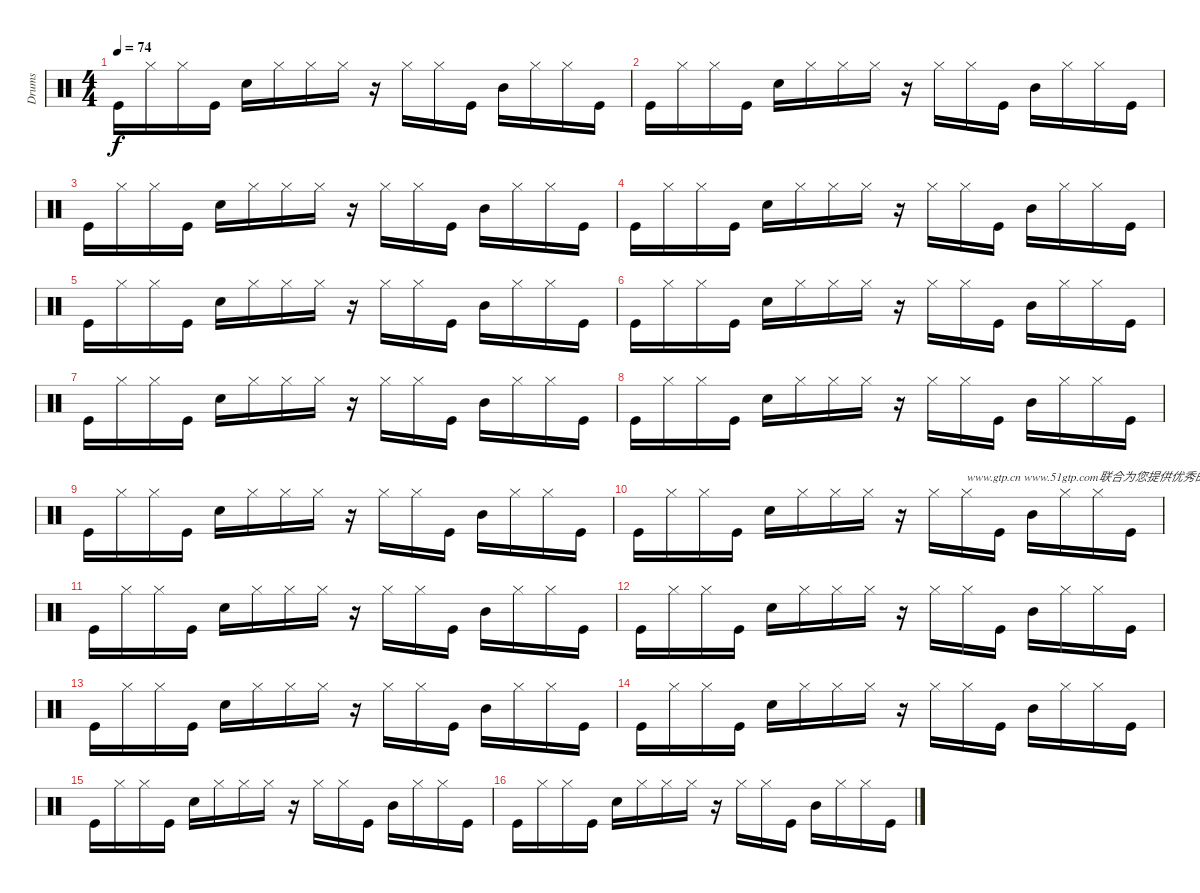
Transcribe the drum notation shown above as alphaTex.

\track ("Drums" "Drums") {instrument percussion}
\staff {score}
\articulation defaults
\ts (4 4)
\tempo 74
\clef neutral
\ks c "Kick (hit)".16{dy f} "Hi-Hat (closed)".16 "Hi-Hat (closed)".16 "Kick (hit)".16 "Snare (hit) 2".16 "Hi-Hat (closed)".16 "Hi-Hat (closed)".16 "Hi-Hat (closed)".16
r.16 "Hi-Hat (closed)".16 "Hi-Hat (closed)".16 "Kick (hit)".16 "Mid Tom (hit)".16 "Hi-Hat (closed)".16 "Hi-Hat (closed)".16 "Kick (hit)".16 |
"Kick (hit)".16 "Hi-Hat (closed)".16 "Hi-Hat (closed)".16 "Kick (hit)".16 "Snare (hit) 2".16 "Hi-Hat (closed)".16 "Hi-Hat (closed)".16 "Hi-Hat (closed)".16 r.16 "Hi-Hat (closed)".16 "Hi-Hat (closed)".16 "Kick (hit)".16 "Mid Tom (hit)".16 "Hi-Hat (closed)".16 "Hi-Hat (closed)".16 "Kick (hit)".16 |
"Kick (hit)".16 "Hi-Hat (closed)".16 "Hi-Hat (closed)".16 "Kick (hit)".16 "Snare (hit) 2".16 "Hi-Hat (closed)".16 "Hi-Hat (closed)".16 "Hi-Hat (closed)".16 r.16 "Hi-Hat (closed)".16 "Hi-Hat (closed)".16 "Kick (hit)".16 "Mid Tom (hit)".16 "Hi-Hat (closed)".16 "Hi-Hat (closed)".16 "Kick (hit)".16 |
"Kick (hit)".16 "Hi-Hat (closed)".16 "Hi-Hat (closed)".16 "Kick (hit)".16 "Snare (hit) 2".16 "Hi-Hat (closed)".16 "Hi-Hat (closed)".16 "Hi-Hat (closed)".16 r.16 "Hi-Hat (closed)".16 "Hi-Hat (closed)".16 "Kick (hit)".16 "Mid Tom (hit)".16 "Hi-Hat (closed)".16 "Hi-Hat (closed)".16 "Kick (hit)".16 |
"Kick (hit)".16 "Hi-Hat (closed)".16 "Hi-Hat (closed)".16 "Kick (hit)".16 "Snare (hit) 2".16 "Hi-Hat (closed)".16 "Hi-Hat (closed)".16 "Hi-Hat (closed)".16 r.16 "Hi-Hat (closed)".16 "Hi-Hat (closed)".16 "Kick (hit)".16 "Mid Tom (hit)".16 "Hi-Hat (closed)".16 "Hi-Hat (closed)".16 "Kick (hit)".16 |
"Kick (hit)".16 "Hi-Hat (closed)".16 "Hi-Hat (closed)".16 "Kick (hit)".16 "Snare (hit) 2".16 "Hi-Hat (closed)".16 "Hi-Hat (closed)".16 "Hi-Hat (closed)".16 r.16 "Hi-Hat (closed)".16 "Hi-Hat (closed)".16 "Kick (hit)".16 "Mid Tom (hit)".16 "Hi-Hat (closed)".16 "Hi-Hat (closed)".16 "Kick (hit)".16 |
"Kick (hit)".16 "Hi-Hat (closed)".16 "Hi-Hat (closed)".16 "Kick (hit)".16 "Snare (hit) 2".16 "Hi-Hat (closed)".16 "Hi-Hat (closed)".16 "Hi-Hat (closed)".16 r.16 "Hi-Hat (closed)".16 "Hi-Hat (closed)".16 "Kick (hit)".16 "Mid Tom (hit)".16 "Hi-Hat (closed)".16 "Hi-Hat (closed)".16 "Kick (hit)".16 |
"Kick (hit)".16 "Hi-Hat (closed)".16 "Hi-Hat (closed)".16 "Kick (hit)".16 "Snare (hit) 2".16 "Hi-Hat (closed)".16 "Hi-Hat (closed)".16 "Hi-Hat (closed)".16 r.16 "Hi-Hat (closed)".16 "Hi-Hat (closed)".16 "Kick (hit)".16 "Mid Tom (hit)".16 "Hi-Hat (closed)".16 "Hi-Hat (closed)".16 "Kick (hit)".16 |
"Kick (hit)".16 "Hi-Hat (closed)".16 "Hi-Hat (closed)".16 "Kick (hit)".16 "Snare (hit) 2".16 "Hi-Hat (closed)".16 "Hi-Hat (closed)".16 "Hi-Hat (closed)".16 r.16 "Hi-Hat (closed)".16 "Hi-Hat (closed)".16 "Kick (hit)".16 "Mid Tom (hit)".16 "Hi-Hat (closed)".16 "Hi-Hat (closed)".16 "Kick (hit)".16 |
"Kick (hit)".16 "Hi-Hat (closed)".16 "Hi-Hat (closed)".16 "Kick (hit)".16 "Snare (hit) 2".16 "Hi-Hat (closed)".16 "Hi-Hat (closed)".16 "Hi-Hat (closed)".16 r.16 "Hi-Hat (closed)".16 "Hi-Hat (closed)".16{txt "www.gtp.cn www.51gtp.com联合为您提供优秀的GTP!"} "Kick (hit)".16 "Mid Tom (hit)".16 "Hi-Hat (closed)".16 "Hi-Hat (closed)".16 "Kick (hit)".16 |
"Kick (hit)".16 "Hi-Hat (closed)".16 "Hi-Hat (closed)".16 "Kick (hit)".16 "Snare (hit) 2".16 "Hi-Hat (closed)".16 "Hi-Hat (closed)".16 "Hi-Hat (closed)".16 r.16 "Hi-Hat (closed)".16 "Hi-Hat (closed)".16 "Kick (hit)".16 "Mid Tom (hit)".16 "Hi-Hat (closed)".16 "Hi-Hat (closed)".16 "Kick (hit)".16 |
"Kick (hit)".16 "Hi-Hat (closed)".16 "Hi-Hat (closed)".16 "Kick (hit)".16 "Snare (hit) 2".16 "Hi-Hat (closed)".16 "Hi-Hat (closed)".16 "Hi-Hat (closed)".16 r.16 "Hi-Hat (closed)".16 "Hi-Hat (closed)".16 "Kick (hit)".16 "Mid Tom (hit)".16 "Hi-Hat (closed)".16 "Hi-Hat (closed)".16 "Kick (hit)".16 |
"Kick (hit)".16 "Hi-Hat (closed)".16 "Hi-Hat (closed)".16 "Kick (hit)".16 "Snare (hit) 2".16 "Hi-Hat (closed)".16 "Hi-Hat (closed)".16 "Hi-Hat (closed)".16 r.16 "Hi-Hat (closed)".16 "Hi-Hat (closed)".16 "Kick (hit)".16 "Mid Tom (hit)".16 "Hi-Hat (closed)".16 "Hi-Hat (closed)".16 "Kick (hit)".16 |
"Kick (hit)".16 "Hi-Hat (closed)".16 "Hi-Hat (closed)".16 "Kick (hit)".16 "Snare (hit) 2".16 "Hi-Hat (closed)".16 "Hi-Hat (closed)".16 "Hi-Hat (closed)".16 r.16 "Hi-Hat (closed)".16 "Hi-Hat (closed)".16 "Kick (hit)".16 "Mid Tom (hit)".16 "Hi-Hat (closed)".16 "Hi-Hat (closed)".16 "Kick (hit)".16 |
"Kick (hit)".16 "Hi-Hat (closed)".16 "Hi-Hat (closed)".16 "Kick (hit)".16 "Snare (hit) 2".16 "Hi-Hat (closed)".16 "Hi-Hat (closed)".16 "Hi-Hat (closed)".16 r.16 "Hi-Hat (closed)".16 "Hi-Hat (closed)".16 "Kick (hit)".16 "Mid Tom (hit)".16 "Hi-Hat (closed)".16 "Hi-Hat (closed)".16 "Kick (hit)".16 |
"Kick (hit)".16 "Hi-Hat (closed)".16 "Hi-Hat (closed)".16 "Kick (hit)".16 "Snare (hit) 2".16 "Hi-Hat (closed)".16 "Hi-Hat (closed)".16 "Hi-Hat (closed)".16 r.16 "Hi-Hat (closed)".16 "Hi-Hat (closed)".16 "Kick (hit)".16 "Mid Tom (hit)".16 "Hi-Hat (closed)".16 "Hi-Hat (closed)".16 "Kick (hit)".16
